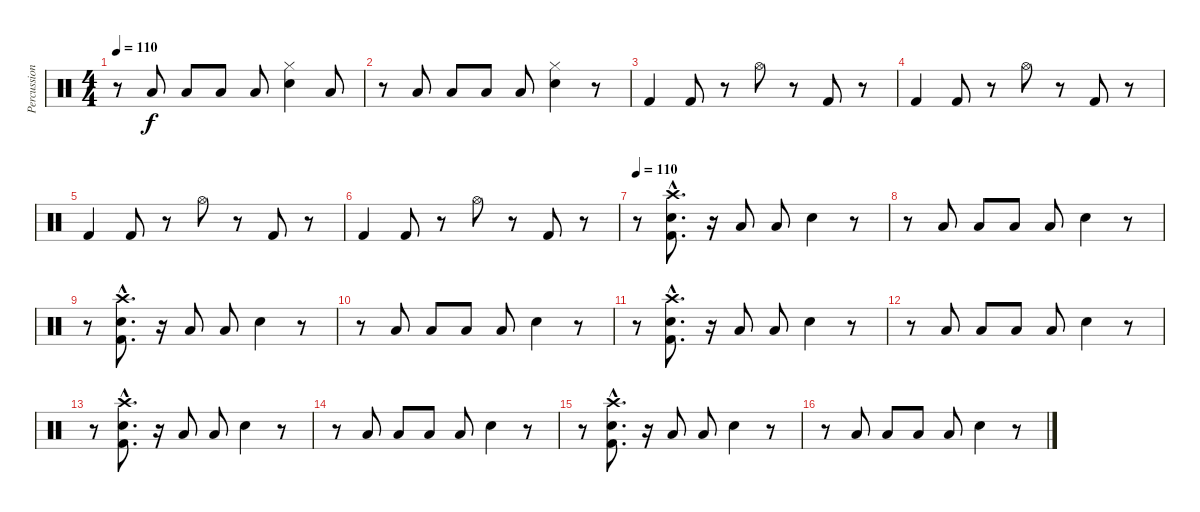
\track ("Percussioni" "Percussion") {instrument percussion}
\staff {score}
\articulation defaults
\ts (4 4)
\tempo 110
\clef neutral
\ks c
r.8{dy f} "Low Tom (hit)".8 "Low Tom (hit)".8 "Low Tom (hit)".8 "Low Tom (hit)".8 ("Hi-Hat (closed)" "Electric Snare (hit)").4 "Low Tom (hit)".8 |
r.8 "Low Tom (hit)".8 "Low Tom (hit)".8 "Low Tom (hit)".8 "Low Tom (hit)".8 ("Hi-Hat (closed)" "Electric Snare (hit)").4 r.8 |
"Kick (hit) 2".4 "Kick (hit) 2".8 r.8 "Hi-Hat (open)".8 r.8 "Kick (hit) 2".8 r.8 |
"Kick (hit) 2".4 "Kick (hit) 2".8 r.8 "Hi-Hat (open)".8 r.8 "Kick (hit) 2".8 r.8 |
"Kick (hit) 2".4 "Kick (hit) 2".8 r.8 "Hi-Hat (open)".8 r.8 "Kick (hit) 2".8 r.8 |
"Kick (hit) 2".4 "Kick (hit) 2".8 r.8 "Hi-Hat (open)".8 r.8 "Kick (hit) 2".8 r.8 |
\tempo 110
r.8 ("Crash high (hit)"{hac} "Electric Snare (hit)"{hac} "Kick (hit) 2"{hac}).8{d} r.16 "Low Tom (hit)".8 "Low Tom (hit)".8 "Electric Snare (hit)".4 r.8 |
r.8 "Low Tom (hit)".8 "Low Tom (hit)".8 "Low Tom (hit)".8 "Low Tom (hit)".8 "Electric Snare (hit)".4 r.8 |
r.8 ("Crash high (hit)"{hac} "Electric Snare (hit)"{hac} "Kick (hit) 2"{hac}).8{d} r.16 "Low Tom (hit)".8 "Low Tom (hit)".8 "Electric Snare (hit)".4 r.8 |
r.8 "Low Tom (hit)".8 "Low Tom (hit)".8 "Low Tom (hit)".8 "Low Tom (hit)".8 "Electric Snare (hit)".4 r.8 |
r.8 ("Crash high (hit)"{hac} "Electric Snare (hit)"{hac} "Kick (hit) 2"{hac}).8{d} r.16 "Low Tom (hit)".8 "Low Tom (hit)".8 "Electric Snare (hit)".4 r.8 |
r.8 "Low Tom (hit)".8 "Low Tom (hit)".8 "Low Tom (hit)".8 "Low Tom (hit)".8 "Electric Snare (hit)".4 r.8 |
r.8 ("Crash high (hit)"{hac} "Electric Snare (hit)"{hac} "Kick (hit) 2"{hac}).8{d} r.16 "Low Tom (hit)".8 "Low Tom (hit)".8 "Electric Snare (hit)".4 r.8 |
r.8 "Low Tom (hit)".8 "Low Tom (hit)".8 "Low Tom (hit)".8 "Low Tom (hit)".8 "Electric Snare (hit)".4 r.8 |
r.8 ("Crash high (hit)"{hac} "Electric Snare (hit)"{hac} "Kick (hit) 2"{hac}).8{d} r.16 "Low Tom (hit)".8 "Low Tom (hit)".8 "Electric Snare (hit)".4 r.8 |
r.8 "Low Tom (hit)".8 "Low Tom (hit)".8 "Low Tom (hit)".8 "Low Tom (hit)".8 "Electric Snare (hit)".4 r.8
